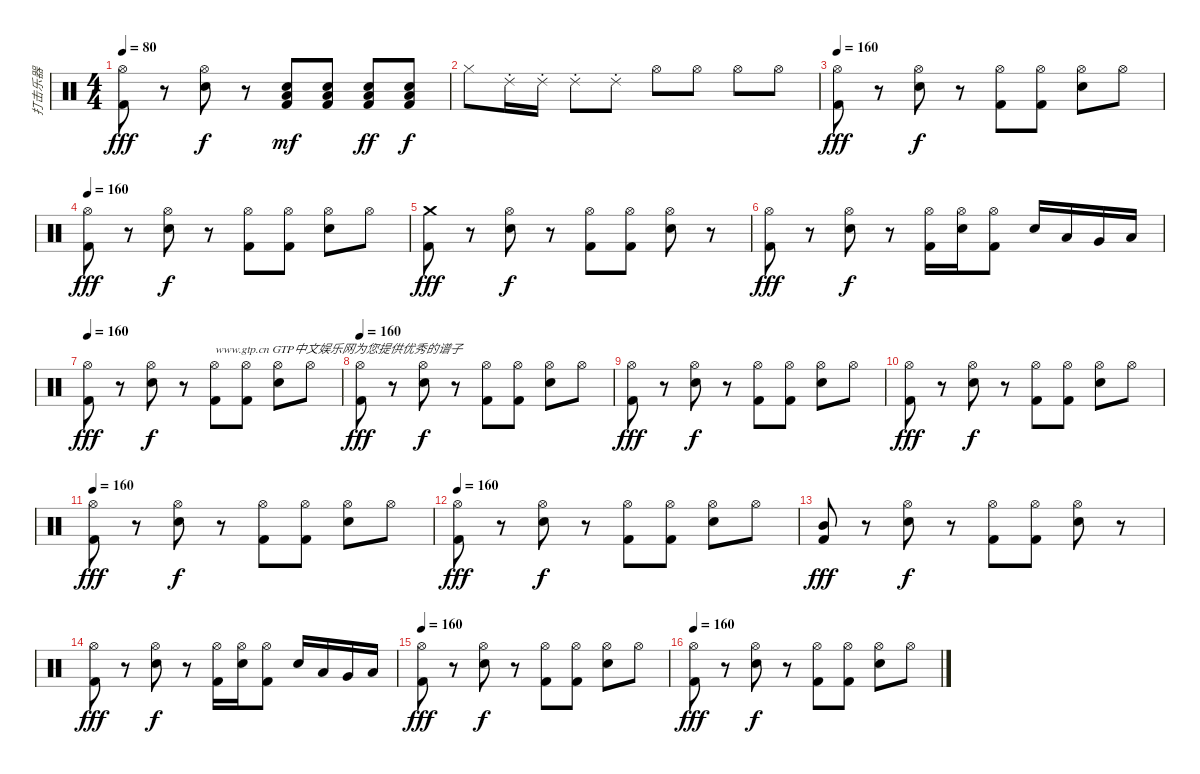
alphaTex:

\track ("打击乐器" "打击乐器") {instrument percussion}
\staff {score}
\articulation defaults
\ts (4 4)
\tempo 80
\clef neutral
\ks c
("Hi-Hat (open)" "Kick (hit) 2").8{dy fff} r.8 ("Hi-Hat (open)" "Electric Snare (hit)").8{dy f} r.8 ("Low Floor Tom (hit)" "Snare (hit) 2" "Kick (hit) 2").8{dy mf} ("Low Floor Tom (hit)" "Snare (hit) 2" "Kick (hit) 2").8 ("Low Floor Tom (hit)" "Snare (hit) 2" "Kick (hit) 2").8{dy ff} ("Low Floor Tom (hit)" "Snare (hit) 2" "Kick (hit) 2").8{dy f} |
"Hi-Hat (closed)".8 "Ride (choke) 2".16 "Ride (choke) 2".16 "Ride (choke) 2".8 "Ride (choke) 2".8 "Hi-Hat (open)".8 "Hi-Hat (open)".8 "Hi-Hat (open)".8 "Hi-Hat (open)".8 |
\tempo 160
("Hi-Hat (open)" "Kick (hit) 2").8{dy fff} r.8 ("Hi-Hat (open)" "Electric Snare (hit)").8{dy f} r.8 ("Hi-Hat (open)" "Kick (hit) 2").8 ("Hi-Hat (open)" "Kick (hit) 2").8 ("Hi-Hat (open)" "Electric Snare (hit)").8 "Hi-Hat (open)".8 |
\tempo 160
("Hi-Hat (open)" "Kick (hit) 2").8{dy fff} r.8 ("Hi-Hat (open)" "Electric Snare (hit)").8{dy f} r.8 ("Hi-Hat (open)" "Kick (hit) 2").8 ("Hi-Hat (open)" "Kick (hit) 2").8 ("Hi-Hat (open)" "Electric Snare (hit)").8 "Hi-Hat (open)".8 |
("Crash medium (hit)" "Kick (hit) 2").8{dy fff} r.8 ("Hi-Hat (open)" "Electric Snare (hit)").8{dy f} r.8 ("Hi-Hat (open)" "Kick (hit) 2").8 ("Hi-Hat (open)" "Kick (hit) 2").8 ("Hi-Hat (open)" "Electric Snare (hit)").8 r.8 |
("Hi-Hat (open)" "Kick (hit) 2").8{dy fff} r.8 ("Hi-Hat (open)" "Electric Snare (hit)").8{dy f} r.8 ("Hi-Hat (open)" "Kick (hit) 2").16 ("Hi-Hat (open)" "Electric Snare (hit)").16 ("Hi-Hat (open)" "Kick (hit) 2").8 "Electric Snare (hit)".16 "Low Tom (hit)".16 "Very Low Tom (hit)".16 "Low Floor Tom (hit)".16 |
\tempo 160
("Hi-Hat (open)" "Kick (hit) 2").8{dy fff} r.8 ("Hi-Hat (open)" "Electric Snare (hit)").8{dy f} r.8 ("Hi-Hat (open)" "Kick (hit) 2").8{txt "www.gtp.cn GTP中文娱乐网为您提供优秀的谱子"} ("Hi-Hat (open)" "Kick (hit) 2").8 ("Hi-Hat (open)" "Electric Snare (hit)").8 "Hi-Hat (open)".8 |
\tempo 160
("Hi-Hat (open)" "Kick (hit) 2").8{dy fff} r.8 ("Hi-Hat (open)" "Electric Snare (hit)").8{dy f} r.8 ("Hi-Hat (open)" "Kick (hit) 2").8 ("Hi-Hat (open)" "Kick (hit) 2").8 ("Hi-Hat (open)" "Electric Snare (hit)").8 "Hi-Hat (open)".8 |
("Hi-Hat (open)" "Kick (hit) 2").8{dy fff} r.8 ("Hi-Hat (open)" "Electric Snare (hit)").8{dy f} r.8 ("Hi-Hat (open)" "Kick (hit) 2").8 ("Hi-Hat (open)" "Kick (hit) 2").8 ("Hi-Hat (open)" "Electric Snare (hit)").8 "Hi-Hat (open)".8 |
("Hi-Hat (open)" "Kick (hit) 2").8{dy fff} r.8 ("Hi-Hat (open)" "Electric Snare (hit)").8{dy f} r.8 ("Hi-Hat (open)" "Kick (hit) 2").8 ("Hi-Hat (open)" "Kick (hit) 2").8 ("Hi-Hat (open)" "Electric Snare (hit)").8 "Hi-Hat (open)".8 |
\tempo 160
("Hi-Hat (open)" "Kick (hit) 2").8{dy fff} r.8 ("Hi-Hat (open)" "Electric Snare (hit)").8{dy f} r.8 ("Hi-Hat (open)" "Kick (hit) 2").8 ("Hi-Hat (open)" "Kick (hit) 2").8 ("Hi-Hat (open)" "Electric Snare (hit)").8 "Hi-Hat (open)".8 |
\tempo 160
("Hi-Hat (open)" "Kick (hit) 2").8{dy fff} r.8 ("Hi-Hat (open)" "Electric Snare (hit)").8{dy f} r.8 ("Hi-Hat (open)" "Kick (hit) 2").8 ("Hi-Hat (open)" "Kick (hit) 2").8 ("Hi-Hat (open)" "Electric Snare (hit)").8 "Hi-Hat (open)".8 |
("Mid Tom (hit)" "Kick (hit) 2").8{dy fff} r.8 ("Hi-Hat (open)" "Electric Snare (hit)").8{dy f} r.8 ("Hi-Hat (open)" "Kick (hit) 2").8 ("Hi-Hat (open)" "Kick (hit) 2").8 ("Hi-Hat (open)" "Electric Snare (hit)").8 r.8 |
("Hi-Hat (open)" "Kick (hit) 2").8{dy fff} r.8 ("Hi-Hat (open)" "Electric Snare (hit)").8{dy f} r.8 ("Hi-Hat (open)" "Kick (hit) 2").16 ("Hi-Hat (open)" "Electric Snare (hit)").16 ("Hi-Hat (open)" "Kick (hit) 2").8 "Electric Snare (hit)".16 "Low Tom (hit)".16 "Very Low Tom (hit)".16 "Low Floor Tom (hit)".16 |
\tempo 160
("Hi-Hat (open)" "Kick (hit) 2").8{dy fff} r.8 ("Hi-Hat (open)" "Electric Snare (hit)").8{dy f} r.8 ("Hi-Hat (open)" "Kick (hit) 2").8 ("Hi-Hat (open)" "Kick (hit) 2").8 ("Hi-Hat (open)" "Electric Snare (hit)").8 "Hi-Hat (open)".8 |
\tempo 160
("Hi-Hat (open)" "Kick (hit) 2").8{dy fff} r.8 ("Hi-Hat (open)" "Electric Snare (hit)").8{dy f} r.8 ("Hi-Hat (open)" "Kick (hit) 2").8 ("Hi-Hat (open)" "Kick (hit) 2").8 ("Hi-Hat (open)" "Electric Snare (hit)").8 "Hi-Hat (open)".8
